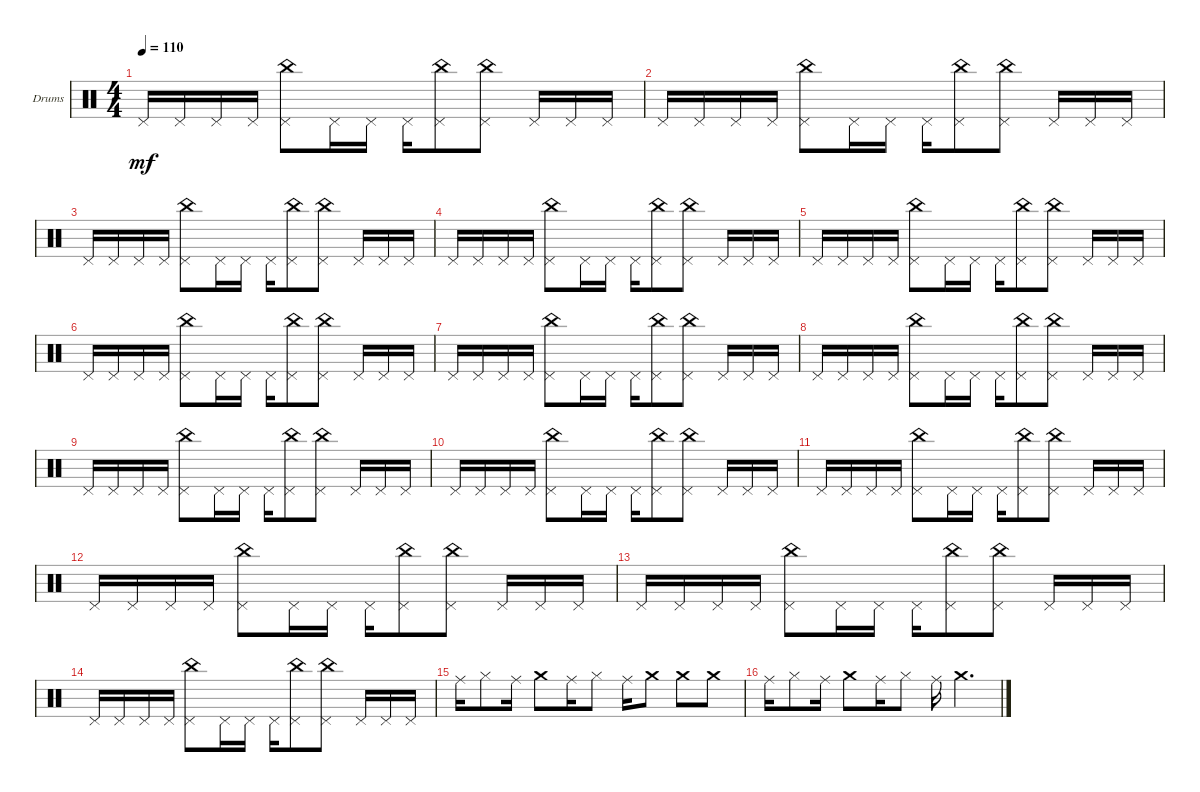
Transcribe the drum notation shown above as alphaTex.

\defaultSystemsLayout 4
\bracketExtendMode groupsimilarinstruments
\firstSystemTrackNameOrientation horizontal
\otherSystemsTrackNameOrientation horizontal
\track ("Drumkit" "Drums") {instrument percussion}
\staff {score}
\articulation defaults
\ts (4 4)
\tempo 110
\clef neutral
\ks c "Pedal Hi-Hat (hit)".16{dy mf} "Pedal Hi-Hat (hit)".16 "Pedal Hi-Hat (hit)".16 "Pedal Hi-Hat (hit)".16
("Pedal Hi-Hat (hit)" "China (hit)").8 "Pedal Hi-Hat (hit)".16 "Pedal Hi-Hat (hit)".16 "Pedal Hi-Hat (hit)".16 ("Pedal Hi-Hat (hit)" "China (hit)").8 ("China (hit)" "Pedal Hi-Hat (hit)").8 "Pedal Hi-Hat (hit)".16 "Pedal Hi-Hat (hit)".16 "Pedal Hi-Hat (hit)".16 |
"Pedal Hi-Hat (hit)".16 "Pedal Hi-Hat (hit)".16 "Pedal Hi-Hat (hit)".16 "Pedal Hi-Hat (hit)".16 ("Pedal Hi-Hat (hit)" "China (hit)").8 "Pedal Hi-Hat (hit)".16 "Pedal Hi-Hat (hit)".16 "Pedal Hi-Hat (hit)".16 ("Pedal Hi-Hat (hit)" "China (hit)").8 ("China (hit)" "Pedal Hi-Hat (hit)").8 "Pedal Hi-Hat (hit)".16 "Pedal Hi-Hat (hit)".16 "Pedal Hi-Hat (hit)".16 |
"Pedal Hi-Hat (hit)".16 "Pedal Hi-Hat (hit)".16 "Pedal Hi-Hat (hit)".16 "Pedal Hi-Hat (hit)".16 ("Pedal Hi-Hat (hit)" "China (hit)").8 "Pedal Hi-Hat (hit)".16 "Pedal Hi-Hat (hit)".16 "Pedal Hi-Hat (hit)".16 ("Pedal Hi-Hat (hit)" "China (hit)").8 ("China (hit)" "Pedal Hi-Hat (hit)").8 "Pedal Hi-Hat (hit)".16 "Pedal Hi-Hat (hit)".16 "Pedal Hi-Hat (hit)".16 |
"Pedal Hi-Hat (hit)".16 "Pedal Hi-Hat (hit)".16 "Pedal Hi-Hat (hit)".16 "Pedal Hi-Hat (hit)".16 ("Pedal Hi-Hat (hit)" "China (hit)").8 "Pedal Hi-Hat (hit)".16 "Pedal Hi-Hat (hit)".16 "Pedal Hi-Hat (hit)".16 ("Pedal Hi-Hat (hit)" "China (hit)").8 ("China (hit)" "Pedal Hi-Hat (hit)").8 "Pedal Hi-Hat (hit)".16 "Pedal Hi-Hat (hit)".16 "Pedal Hi-Hat (hit)".16 |
"Pedal Hi-Hat (hit)".16 "Pedal Hi-Hat (hit)".16 "Pedal Hi-Hat (hit)".16 "Pedal Hi-Hat (hit)".16 ("Pedal Hi-Hat (hit)" "China (hit)").8 "Pedal Hi-Hat (hit)".16 "Pedal Hi-Hat (hit)".16 "Pedal Hi-Hat (hit)".16 ("Pedal Hi-Hat (hit)" "China (hit)").8 ("China (hit)" "Pedal Hi-Hat (hit)").8 "Pedal Hi-Hat (hit)".16 "Pedal Hi-Hat (hit)".16 "Pedal Hi-Hat (hit)".16 |
"Pedal Hi-Hat (hit)".16 "Pedal Hi-Hat (hit)".16 "Pedal Hi-Hat (hit)".16 "Pedal Hi-Hat (hit)".16 ("Pedal Hi-Hat (hit)" "China (hit)").8 "Pedal Hi-Hat (hit)".16 "Pedal Hi-Hat (hit)".16 "Pedal Hi-Hat (hit)".16 ("Pedal Hi-Hat (hit)" "China (hit)").8 ("China (hit)" "Pedal Hi-Hat (hit)").8 "Pedal Hi-Hat (hit)".16 "Pedal Hi-Hat (hit)".16 "Pedal Hi-Hat (hit)".16 |
"Pedal Hi-Hat (hit)".16 "Pedal Hi-Hat (hit)".16 "Pedal Hi-Hat (hit)".16 "Pedal Hi-Hat (hit)".16 ("Pedal Hi-Hat (hit)" "China (hit)").8 "Pedal Hi-Hat (hit)".16 "Pedal Hi-Hat (hit)".16 "Pedal Hi-Hat (hit)".16 ("Pedal Hi-Hat (hit)" "China (hit)").8 ("China (hit)" "Pedal Hi-Hat (hit)").8 "Pedal Hi-Hat (hit)".16 "Pedal Hi-Hat (hit)".16 "Pedal Hi-Hat (hit)".16 |
"Pedal Hi-Hat (hit)".16 "Pedal Hi-Hat (hit)".16 "Pedal Hi-Hat (hit)".16 "Pedal Hi-Hat (hit)".16 ("Pedal Hi-Hat (hit)" "China (hit)").8 "Pedal Hi-Hat (hit)".16 "Pedal Hi-Hat (hit)".16 "Pedal Hi-Hat (hit)".16 ("Pedal Hi-Hat (hit)" "China (hit)").8 ("China (hit)" "Pedal Hi-Hat (hit)").8 "Pedal Hi-Hat (hit)".16 "Pedal Hi-Hat (hit)".16 "Pedal Hi-Hat (hit)".16 |
"Pedal Hi-Hat (hit)".16 "Pedal Hi-Hat (hit)".16 "Pedal Hi-Hat (hit)".16 "Pedal Hi-Hat (hit)".16 ("Pedal Hi-Hat (hit)" "China (hit)").8 "Pedal Hi-Hat (hit)".16 "Pedal Hi-Hat (hit)".16 "Pedal Hi-Hat (hit)".16 ("Pedal Hi-Hat (hit)" "China (hit)").8 ("China (hit)" "Pedal Hi-Hat (hit)").8 "Pedal Hi-Hat (hit)".16 "Pedal Hi-Hat (hit)".16 "Pedal Hi-Hat (hit)".16 |
"Pedal Hi-Hat (hit)".16 "Pedal Hi-Hat (hit)".16 "Pedal Hi-Hat (hit)".16 "Pedal Hi-Hat (hit)".16 ("Pedal Hi-Hat (hit)" "China (hit)").8 "Pedal Hi-Hat (hit)".16 "Pedal Hi-Hat (hit)".16 "Pedal Hi-Hat (hit)".16 ("Pedal Hi-Hat (hit)" "China (hit)").8 ("China (hit)" "Pedal Hi-Hat (hit)").8 "Pedal Hi-Hat (hit)".16 "Pedal Hi-Hat (hit)".16 "Pedal Hi-Hat (hit)".16 |
"Pedal Hi-Hat (hit)".16 "Pedal Hi-Hat (hit)".16 "Pedal Hi-Hat (hit)".16 "Pedal Hi-Hat (hit)".16 ("Pedal Hi-Hat (hit)" "China (hit)").8 "Pedal Hi-Hat (hit)".16 "Pedal Hi-Hat (hit)".16 "Pedal Hi-Hat (hit)".16 ("Pedal Hi-Hat (hit)" "China (hit)").8 ("China (hit)" "Pedal Hi-Hat (hit)").8 "Pedal Hi-Hat (hit)".16 "Pedal Hi-Hat (hit)".16 "Pedal Hi-Hat (hit)".16 |
"Pedal Hi-Hat (hit)".16 "Pedal Hi-Hat (hit)".16 "Pedal Hi-Hat (hit)".16 "Pedal Hi-Hat (hit)".16 ("Pedal Hi-Hat (hit)" "China (hit)").8 "Pedal Hi-Hat (hit)".16 "Pedal Hi-Hat (hit)".16 "Pedal Hi-Hat (hit)".16 ("Pedal Hi-Hat (hit)" "China (hit)").8 ("China (hit)" "Pedal Hi-Hat (hit)").8 "Pedal Hi-Hat (hit)".16 "Pedal Hi-Hat (hit)".16 "Pedal Hi-Hat (hit)".16 |
"Pedal Hi-Hat (hit)".16 "Pedal Hi-Hat (hit)".16 "Pedal Hi-Hat (hit)".16 "Pedal Hi-Hat (hit)".16 ("Pedal Hi-Hat (hit)" "China (hit)").8 "Pedal Hi-Hat (hit)".16 "Pedal Hi-Hat (hit)".16 "Pedal Hi-Hat (hit)".16 ("Pedal Hi-Hat (hit)" "China (hit)").8 ("China (hit)" "Pedal Hi-Hat (hit)").8 "Pedal Hi-Hat (hit)".16 "Pedal Hi-Hat (hit)".16 "Pedal Hi-Hat (hit)".16 |
"Pedal Hi-Hat (hit)".16 "Pedal Hi-Hat (hit)".16 "Pedal Hi-Hat (hit)".16 "Pedal Hi-Hat (hit)".16 ("Pedal Hi-Hat (hit)" "China (hit)").8 "Pedal Hi-Hat (hit)".16 "Pedal Hi-Hat (hit)".16 "Pedal Hi-Hat (hit)".16 ("Pedal Hi-Hat (hit)" "China (hit)").8 ("China (hit)" "Pedal Hi-Hat (hit)").8 "Pedal Hi-Hat (hit)".16 "Pedal Hi-Hat (hit)".16 "Pedal Hi-Hat (hit)".16 |
"Ride (middle)".16 "Hi-Hat (closed)".8 "Ride (middle)".16 "Crash medium (hit)".8 "Ride (middle)".16 "Hi-Hat (closed)".8 "Ride (middle)".16 "Crash medium (hit)".8 "Crash medium (hit)".8 "Crash medium (hit)".8 |
"Ride (middle)".16 "Hi-Hat (closed)".8 "Ride (middle)".16 "Crash medium (hit)".8 "Ride (middle)".16 "Hi-Hat (closed)".8 "Ride (middle)".16 "Crash medium (hit)".4{d}
